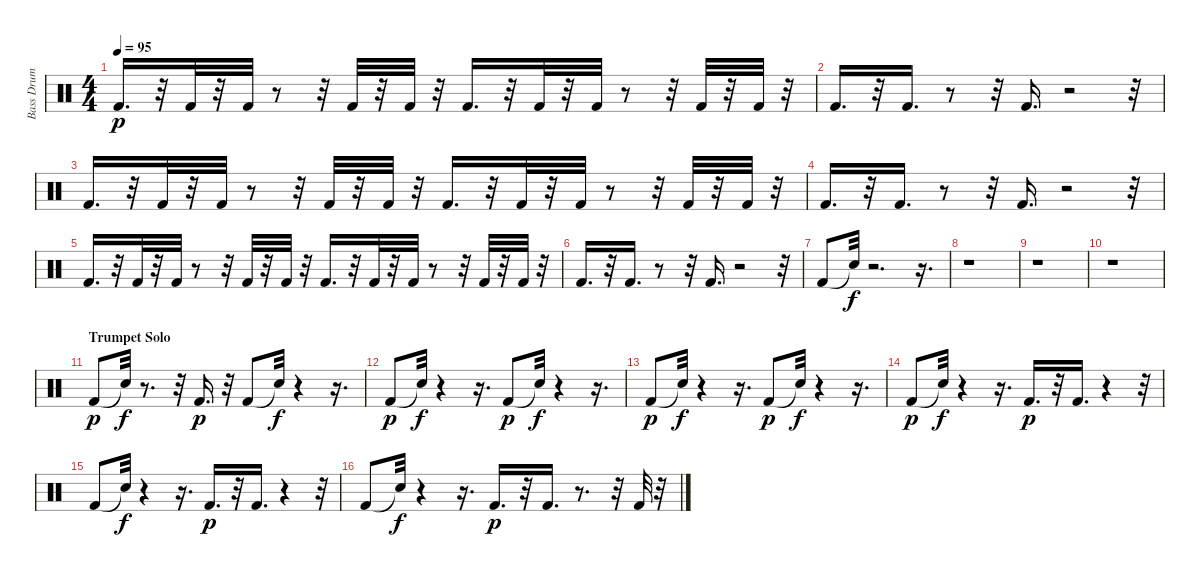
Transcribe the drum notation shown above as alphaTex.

\track ("Bass Drum" "Bass Drum") {instrument percussion}
\staff {score}
\articulation defaults
\ts (4 4)
\tempo 95
\clef neutral
\ks c "Kick (hit) 2".16{d dy p}
r.32 "Kick (hit) 2".32 r.32 "Kick (hit) 2".32 r.8 r.32 "Kick (hit) 2".32 r.32 "Kick (hit) 2".32 r.32 "Kick (hit) 2".16{d} r.32 "Kick (hit) 2".32 r.32 "Kick (hit) 2".32 r.8 r.32 "Kick (hit) 2".32 r.32 "Kick (hit) 2".32 r.32 |
"Kick (hit) 2".16{d} r.32 "Kick (hit) 2".16{d} r.8 r.32 "Kick (hit) 2".16{d} r.2 r.32 |
"Kick (hit) 2".16{d} r.32 "Kick (hit) 2".32 r.32 "Kick (hit) 2".32 r.8 r.32 "Kick (hit) 2".32 r.32 "Kick (hit) 2".32 r.32 "Kick (hit) 2".16{d} r.32 "Kick (hit) 2".32 r.32 "Kick (hit) 2".32 r.8 r.32 "Kick (hit) 2".32 r.32 "Kick (hit) 2".32 r.32 |
"Kick (hit) 2".16{d} r.32 "Kick (hit) 2".16{d} r.8 r.32 "Kick (hit) 2".16{d} r.2 r.32 |
"Kick (hit) 2".16{d} r.32 "Kick (hit) 2".32 r.32 "Kick (hit) 2".32 r.8 r.32 "Kick (hit) 2".32 r.32 "Kick (hit) 2".32 r.32 "Kick (hit) 2".16{d} r.32 "Kick (hit) 2".32 r.32 "Kick (hit) 2".32 r.8 r.32 "Kick (hit) 2".32 r.32 "Kick (hit) 2".32 r.32 |
"Kick (hit) 2".16{d} r.32 "Kick (hit) 2".16{d} r.8 r.32 "Kick (hit) 2".16{d} r.2 r.32 |
"Kick (hit) 2".8 "Snare (hit)"{t}.32{dy f} r.2{d} r.16{d} |
r.1 |
r.1 |
r.1 |
\section ("" "Trumpet Solo")
"Kick (hit) 2".8{dy p} "Snare (hit)"{t}.32{dy f} r.8{d} r.32 "Kick (hit) 2".16{d dy p} r.32 "Kick (hit) 2".8 "Snare (hit)"{t}.32{dy f} r.4 r.16{d} |
"Kick (hit) 2".8{dy p} "Snare (hit)"{t}.32{dy f} r.4 r.16{d} "Kick (hit) 2".8{dy p} "Snare (hit)"{t}.32{dy f} r.4 r.16{d} |
"Kick (hit) 2".8{dy p} "Snare (hit)"{t}.32{dy f} r.4 r.16{d} "Kick (hit) 2".8{dy p} "Snare (hit)"{t}.32{dy f} r.4 r.16{d} |
"Kick (hit) 2".8{dy p} "Snare (hit)"{t}.32{dy f} r.4 r.16{d} "Kick (hit) 2".16{d dy p} r.32 "Kick (hit) 2".16{d} r.4 r.32 |
"Kick (hit) 2".8 "Snare (hit)"{t}.32{dy f} r.4 r.16{d} "Kick (hit) 2".16{d dy p} r.32 "Kick (hit) 2".16{d} r.4 r.32 |
"Kick (hit) 2".8 "Snare (hit)"{t}.32{dy f} r.4 r.16{d} "Kick (hit) 2".16{d dy p} r.32 "Kick (hit) 2".16{d} r.8{d} r.32 "Kick (hit) 2".32 r.32
